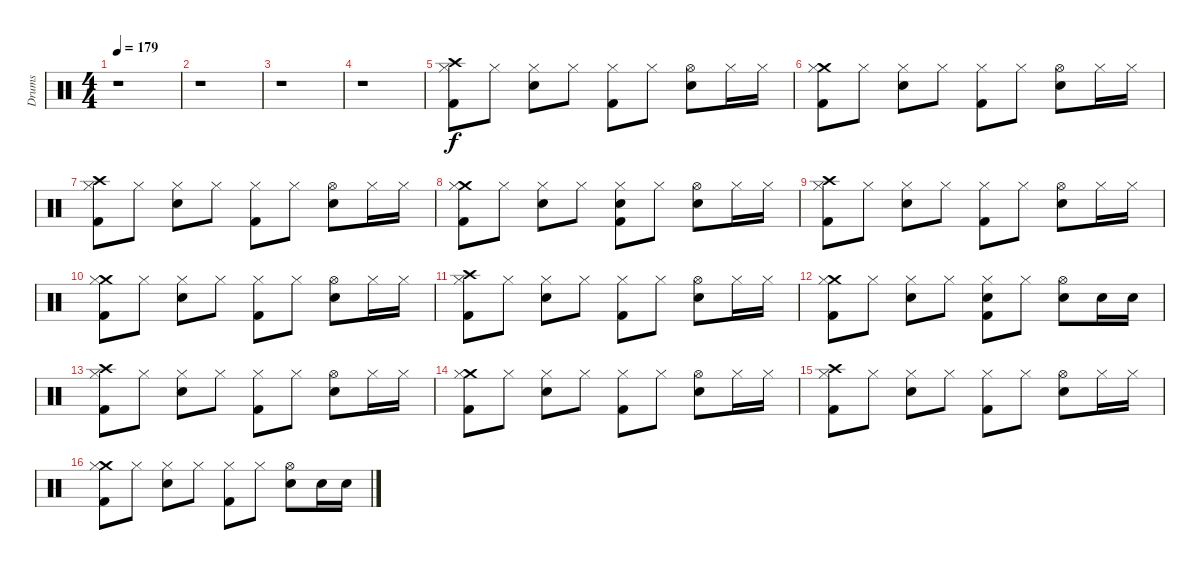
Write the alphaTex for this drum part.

\track ("Drums" "Drums") {instrument percussion}
\staff {score}
\articulation defaults
\ts (4 4)
\tempo 179
\clef neutral
\ks c
r.1{dy f} |
r.1 |
r.1 |
r.1 |
("Crash high (hit)" "Hi-Hat (closed)" "Kick (hit) 2").8 "Hi-Hat (closed)".8 ("Hi-Hat (closed)" "Electric Snare (hit)").8 "Hi-Hat (closed)".8 ("Hi-Hat (closed)" "Kick (hit) 2").8 "Hi-Hat (closed)".8 ("Hi-Hat (open)" "Electric Snare (hit)").8 "Hi-Hat (closed)".16 "Hi-Hat (closed)".16 |
("Crash medium (hit)" "Hi-Hat (closed)" "Kick (hit) 2").8 "Hi-Hat (closed)".8 ("Hi-Hat (closed)" "Electric Snare (hit)").8 "Hi-Hat (closed)".8 ("Hi-Hat (closed)" "Kick (hit) 2").8 "Hi-Hat (closed)".8 ("Hi-Hat (open)" "Electric Snare (hit)").8 "Hi-Hat (closed)".16 "Hi-Hat (closed)".16 |
("Crash high (hit)" "Hi-Hat (closed)" "Kick (hit) 2").8 "Hi-Hat (closed)".8 ("Hi-Hat (closed)" "Electric Snare (hit)").8 "Hi-Hat (closed)".8 ("Hi-Hat (closed)" "Kick (hit) 2").8 "Hi-Hat (closed)".8 ("Hi-Hat (open)" "Electric Snare (hit)").8 "Hi-Hat (closed)".16 "Hi-Hat (closed)".16 |
("Crash medium (hit)" "Hi-Hat (closed)" "Kick (hit) 2").8 "Hi-Hat (closed)".8 ("Hi-Hat (closed)" "Electric Snare (hit)").8 "Hi-Hat (closed)".8 ("Electric Snare (hit)" "Hi-Hat (closed)" "Kick (hit) 2").8 "Hi-Hat (closed)".8 ("Hi-Hat (open)" "Electric Snare (hit)").8 "Hi-Hat (closed)".16 "Hi-Hat (closed)".16 |
("Crash high (hit)" "Hi-Hat (closed)" "Kick (hit) 2").8 "Hi-Hat (closed)".8 ("Hi-Hat (closed)" "Electric Snare (hit)").8 "Hi-Hat (closed)".8 ("Hi-Hat (closed)" "Kick (hit) 2").8 "Hi-Hat (closed)".8 ("Hi-Hat (open)" "Electric Snare (hit)").8 "Hi-Hat (closed)".16 "Hi-Hat (closed)".16 |
("Crash medium (hit)" "Hi-Hat (closed)" "Kick (hit) 2").8 "Hi-Hat (closed)".8 ("Hi-Hat (closed)" "Electric Snare (hit)").8 "Hi-Hat (closed)".8 ("Hi-Hat (closed)" "Kick (hit) 2").8 "Hi-Hat (closed)".8 ("Hi-Hat (open)" "Electric Snare (hit)").8 "Hi-Hat (closed)".16 "Hi-Hat (closed)".16 |
("Crash high (hit)" "Hi-Hat (closed)" "Kick (hit) 2").8 "Hi-Hat (closed)".8 ("Hi-Hat (closed)" "Electric Snare (hit)").8 "Hi-Hat (closed)".8 ("Hi-Hat (closed)" "Kick (hit) 2").8 "Hi-Hat (closed)".8 ("Hi-Hat (open)" "Electric Snare (hit)").8 "Hi-Hat (closed)".16 "Hi-Hat (closed)".16 |
("Crash medium (hit)" "Hi-Hat (closed)" "Kick (hit) 2").8 "Hi-Hat (closed)".8 ("Hi-Hat (closed)" "Electric Snare (hit)").8 "Hi-Hat (closed)".8 ("Electric Snare (hit)" "Hi-Hat (closed)" "Kick (hit) 2").8 "Hi-Hat (closed)".8 ("Hi-Hat (open)" "Electric Snare (hit)").8 "Electric Snare (hit)".16 "Electric Snare (hit)".16 |
("Crash high (hit)" "Hi-Hat (closed)" "Kick (hit) 2").8 "Hi-Hat (closed)".8 ("Hi-Hat (closed)" "Electric Snare (hit)").8 "Hi-Hat (closed)".8 ("Hi-Hat (closed)" "Kick (hit) 2").8 "Hi-Hat (closed)".8 ("Hi-Hat (open)" "Electric Snare (hit)").8 "Hi-Hat (closed)".16 "Hi-Hat (closed)".16 |
("Crash medium (hit)" "Hi-Hat (closed)" "Kick (hit) 2").8 "Hi-Hat (closed)".8 ("Hi-Hat (closed)" "Electric Snare (hit)").8 "Hi-Hat (closed)".8 ("Hi-Hat (closed)" "Kick (hit) 2").8 "Hi-Hat (closed)".8 ("Hi-Hat (open)" "Electric Snare (hit)").8 "Hi-Hat (closed)".16 "Hi-Hat (closed)".16 |
("Crash high (hit)" "Hi-Hat (closed)" "Kick (hit) 2").8 "Hi-Hat (closed)".8 ("Hi-Hat (closed)" "Electric Snare (hit)").8 "Hi-Hat (closed)".8 ("Hi-Hat (closed)" "Kick (hit) 2").8 "Hi-Hat (closed)".8 ("Hi-Hat (open)" "Electric Snare (hit)").8 "Hi-Hat (closed)".16 "Hi-Hat (closed)".16 |
("Crash medium (hit)" "Hi-Hat (closed)" "Kick (hit) 2").8 "Hi-Hat (closed)".8 ("Hi-Hat (closed)" "Electric Snare (hit)").8 "Hi-Hat (closed)".8 ("Hi-Hat (closed)" "Kick (hit) 2").8 "Hi-Hat (closed)".8 ("Hi-Hat (open)" "Electric Snare (hit)").8 "Electric Snare (hit)".16 "Electric Snare (hit)".16
